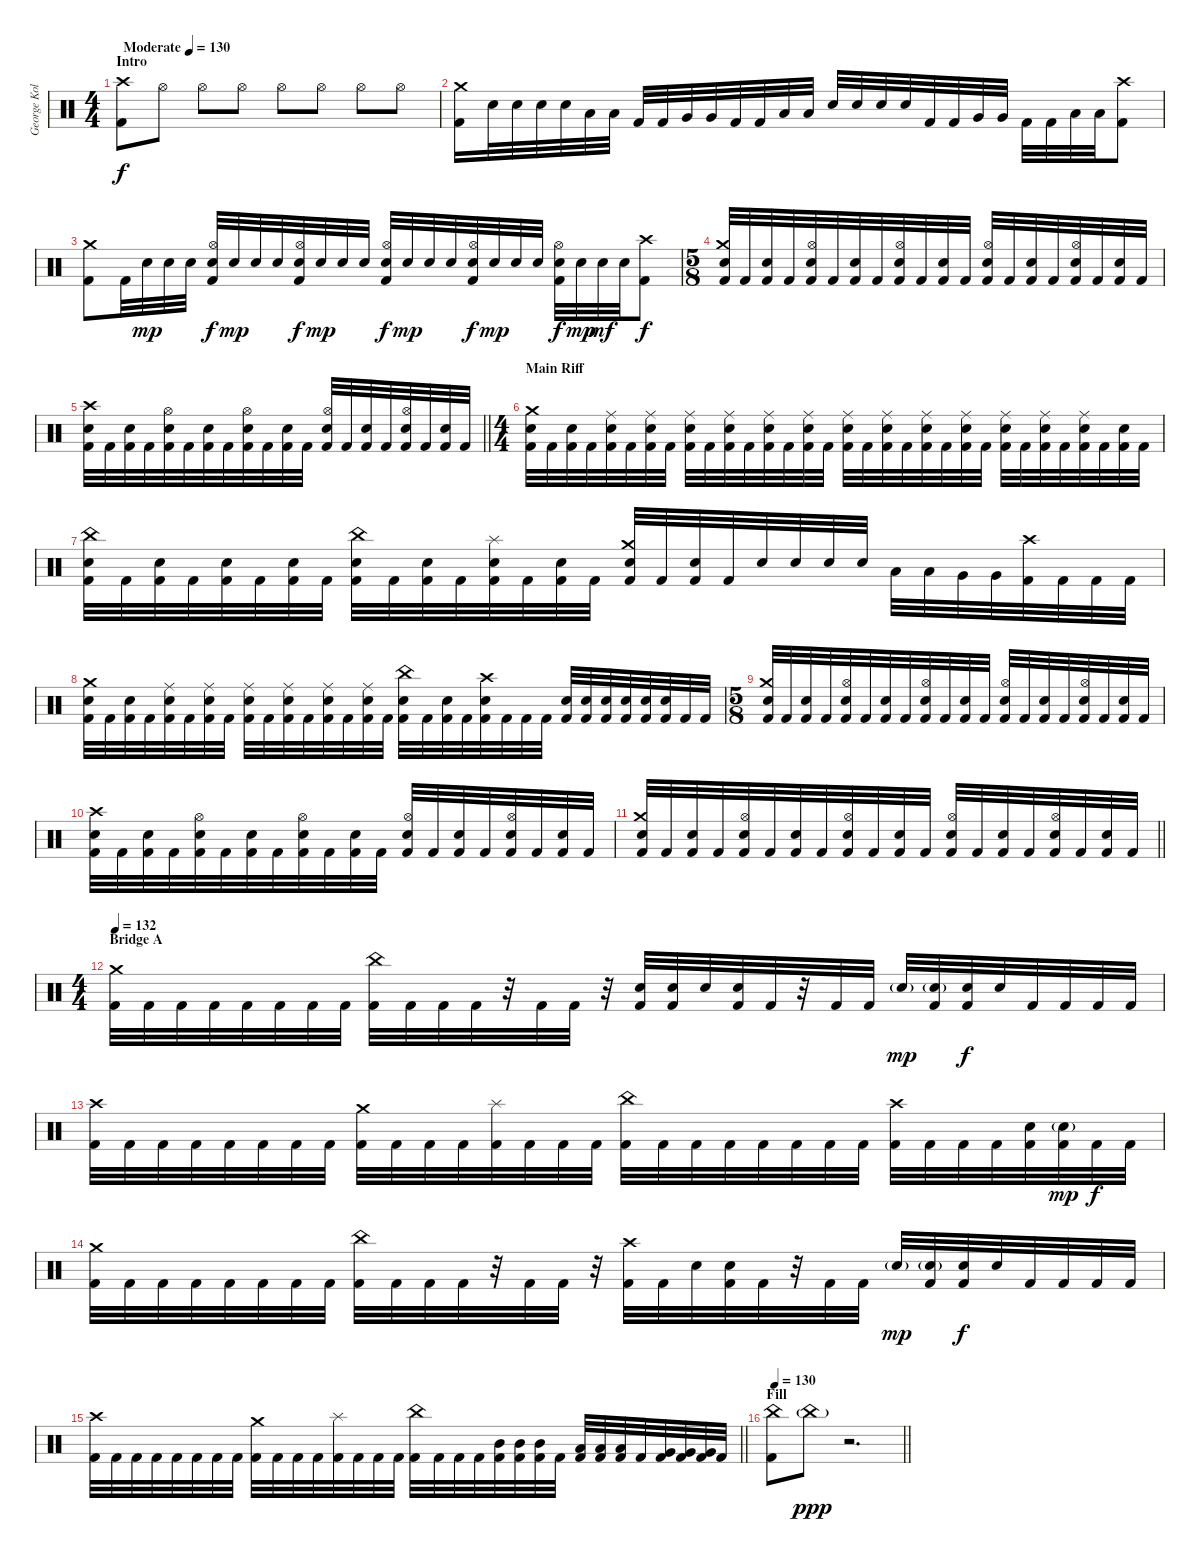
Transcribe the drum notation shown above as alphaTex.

\track ("George Kollias" "George Kol") {instrument percussion}
\staff {score}
\articulation defaults
\ts (4 4)
\section ("" "Intro")
\tempo (130 "Moderate")
\clef neutral
\ks c
("Crash high (hit)" "Kick (hit) 2").8{dy f} "Hi-Hat (open)".8 "Hi-Hat (open)".8 "Hi-Hat (open)".8 "Hi-Hat (open)".8 "Hi-Hat (open)".8 "Hi-Hat (open)".8 "Hi-Hat (open)".8 |
("Crash medium (hit)" "Kick (hit) 2").16 "Electric Snare (hit)".32 "Electric Snare (hit)".32 "Electric Snare (hit)".32 "Electric Snare (hit)".32 "Low Tom (hit)".32 "Low Tom (hit)".32 "Kick (hit) 2".32 "Kick (hit) 2".32 "Very Low Tom (hit)".32 "Very Low Tom (hit)".32 "Kick (hit) 2".32 "Kick (hit) 2".32 "Low Floor Tom (hit)".32 "Low Floor Tom (hit)".32 "Electric Snare (hit)".32 "Electric Snare (hit)".32 "Electric Snare (hit)".32 "Electric Snare (hit)".32 "Kick (hit) 2".32 "Kick (hit) 2".32 "Very Low Tom (hit)".32 "Very Low Tom (hit)".32 "Kick (hit) 2".32 "Kick (hit) 2".32 "Low Floor Tom (hit)".32 "Low Floor Tom (hit)".32 ("Crash high (hit)" "Kick (hit) 2").8 |
("Crash medium (hit)" "Kick (hit) 2").8 "Kick (hit) 2".32 "Electric Snare (hit)".32{dy mp} "Electric Snare (hit)".32 "Electric Snare (hit)".32 ("Hi-Hat (open)" "Electric Snare (hit)" "Kick (hit) 2").32{dy f} "Electric Snare (hit)".32{dy mp} "Electric Snare (hit)".32 "Electric Snare (hit)".32 ("Hi-Hat (open)" "Electric Snare (hit)" "Kick (hit) 2").32{dy f} "Electric Snare (hit)".32{dy mp} "Electric Snare (hit)".32 "Electric Snare (hit)".32 ("Hi-Hat (open)" "Electric Snare (hit)" "Kick (hit) 2").32{dy f} "Electric Snare (hit)".32{dy mp} "Electric Snare (hit)".32 "Electric Snare (hit)".32 ("Hi-Hat (open)" "Electric Snare (hit)" "Kick (hit) 2").32{dy f} "Electric Snare (hit)".32{dy mp} "Electric Snare (hit)".32 "Electric Snare (hit)".32 ("Hi-Hat (open)" "Electric Snare (hit)" "Kick (hit) 2").32{dy f} "Electric Snare (hit)".32{dy mp} "Electric Snare (hit)".32{dy mf} "Electric Snare (hit)".32 ("Crash high (hit)" "Kick (hit) 2").8{dy f} |
\ts (5 8)
("Crash medium (hit)" "Electric Snare (hit)" "Kick (hit) 2").32 "Kick (hit) 2".32 ("Electric Snare (hit)" "Kick (hit) 2").32 "Kick (hit) 2".32 ("Hi-Hat (open)" "Electric Snare (hit)" "Kick (hit) 2").32 "Kick (hit) 2".32 ("Electric Snare (hit)" "Kick (hit) 2").32 "Kick (hit) 2".32 ("Hi-Hat (open)" "Electric Snare (hit)" "Kick (hit) 2").32 "Kick (hit) 2".32 ("Electric Snare (hit)" "Kick (hit) 2").32 "Kick (hit) 2".32 ("Hi-Hat (open)" "Electric Snare (hit)" "Kick (hit) 2").32 "Kick (hit) 2".32 ("Electric Snare (hit)" "Kick (hit) 2").32 "Kick (hit) 2".32 ("Hi-Hat (open)" "Electric Snare (hit)" "Kick (hit) 2").32 "Kick (hit) 2".32 ("Electric Snare (hit)" "Kick (hit) 2").32 "Kick (hit) 2".32 |
\barLineRight lightlight
("Crash high (hit)" "Electric Snare (hit)" "Kick (hit) 2").32 "Kick (hit) 2".32 ("Electric Snare (hit)" "Kick (hit) 2").32 "Kick (hit) 2".32 ("Hi-Hat (open)" "Electric Snare (hit)" "Kick (hit) 2").32 "Kick (hit) 2".32 ("Electric Snare (hit)" "Kick (hit) 2").32 "Kick (hit) 2".32 ("Hi-Hat (open)" "Electric Snare (hit)" "Kick (hit) 2").32 "Kick (hit) 2".32 ("Electric Snare (hit)" "Kick (hit) 2").32 "Kick (hit) 2".32 ("Hi-Hat (open)" "Electric Snare (hit)" "Kick (hit) 2").32 "Kick (hit) 2".32 ("Electric Snare (hit)" "Kick (hit) 2").32 "Kick (hit) 2".32 ("Hi-Hat (open)" "Electric Snare (hit)" "Kick (hit) 2").32 "Kick (hit) 2".32 ("Electric Snare (hit)" "Kick (hit) 2").32 "Kick (hit) 2".32 |
\ts (4 4)
\section ("" "Main Riff ")
("Crash medium (hit)" "Electric Snare (hit)" "Kick (hit) 2").32 "Kick (hit) 2".32 ("Electric Snare (hit)" "Kick (hit) 2").32 "Kick (hit) 2".32 ("Ride (middle)" "Electric Snare (hit)" "Kick (hit) 2").32 "Kick (hit) 2".32 ("Ride (middle)" "Electric Snare (hit)" "Kick (hit) 2").32 "Kick (hit) 2".32 ("Ride (middle)" "Electric Snare (hit)" "Kick (hit) 2").32 "Kick (hit) 2".32 ("Ride (middle)" "Electric Snare (hit)" "Kick (hit) 2").32 "Kick (hit) 2".32 ("Ride (middle)" "Electric Snare (hit)" "Kick (hit) 2").32 "Kick (hit) 2".32 ("Ride (middle)" "Electric Snare (hit)" "Kick (hit) 2").32 "Kick (hit) 2".32 ("Ride (middle)" "Electric Snare (hit)" "Kick (hit) 2").32 "Kick (hit) 2".32 ("Ride (middle)" "Electric Snare (hit)" "Kick (hit) 2").32 "Kick (hit) 2".32 ("Ride (middle)" "Electric Snare (hit)" "Kick (hit) 2").32 "Kick (hit) 2".32 ("Ride (middle)" "Electric Snare (hit)" "Kick (hit) 2").32 "Kick (hit) 2".32 ("Ride (middle)" "Electric Snare (hit)" "Kick (hit) 2").32 "Kick (hit) 2".32 ("Ride (middle)" "Electric Snare (hit)" "Kick (hit) 2").32 "Kick (hit) 2".32 ("Ride (middle)" "Electric Snare (hit)" "Kick (hit) 2").32 "Kick (hit) 2".32 ("Electric Snare (hit)" "Kick (hit) 2").32 "Kick (hit) 2".32 |
("China (hit)" "Electric Snare (hit)" "Kick (hit) 2").32 "Kick (hit) 2".32 ("Electric Snare (hit)" "Kick (hit) 2").32 "Kick (hit) 2".32 ("Electric Snare (hit)" "Kick (hit) 2").32 "Kick (hit) 2".32 ("Electric Snare (hit)" "Kick (hit) 2").32 "Kick (hit) 2".32 ("China (hit)" "Electric Snare (hit)" "Kick (hit) 2").32 "Kick (hit) 2".32 ("Electric Snare (hit)" "Kick (hit) 2").32 "Kick (hit) 2".32 ("Splash (hit)" "Electric Snare (hit)" "Kick (hit) 2").32 "Kick (hit) 2".32 ("Electric Snare (hit)" "Kick (hit) 2").32 "Kick (hit) 2".32 ("Crash medium (hit)" "Electric Snare (hit)" "Kick (hit) 2").32 "Kick (hit) 2".32 ("Electric Snare (hit)" "Kick (hit) 2").32 "Kick (hit) 2".32 "Electric Snare (hit)".32 "Electric Snare (hit)".32 "Electric Snare (hit)".32 "Electric Snare (hit)".32 "Low Tom (hit)".32 "Low Tom (hit)".32 "Very Low Tom (hit)".32 "Very Low Tom (hit)".32 ("Crash high (hit)" "Kick (hit) 2").32 "Kick (hit) 2".32 "Kick (hit) 2".32 "Kick (hit) 2".32 |
("Crash medium (hit)" "Electric Snare (hit)" "Kick (hit) 2").32 "Kick (hit) 2".32 ("Electric Snare (hit)" "Kick (hit) 2").32 "Kick (hit) 2".32 ("Ride (middle)" "Electric Snare (hit)" "Kick (hit) 2").32 "Kick (hit) 2".32 ("Ride (middle)" "Electric Snare (hit)" "Kick (hit) 2").32 "Kick (hit) 2".32 ("Ride (middle)" "Electric Snare (hit)" "Kick (hit) 2").32 "Kick (hit) 2".32 ("Ride (middle)" "Electric Snare (hit)" "Kick (hit) 2").32 "Kick (hit) 2".32 ("Ride (middle)" "Electric Snare (hit)" "Kick (hit) 2").32 "Kick (hit) 2".32 ("Ride (middle)" "Electric Snare (hit)" "Kick (hit) 2").32 "Kick (hit) 2".32 ("China (hit)" "Electric Snare (hit)" "Kick (hit) 2").32 "Kick (hit) 2".32 ("Electric Snare (hit)" "Kick (hit) 2").32 "Kick (hit) 2".32 ("Crash high (hit)" "Electric Snare (hit)" "Kick (hit) 2").32 "Kick (hit) 2".32 "Kick (hit) 2".32 "Kick (hit) 2".32 ("Electric Snare (hit)" "Kick (hit) 2").32 ("Electric Snare (hit)" "Kick (hit) 2").32 ("Electric Snare (hit)" "Kick (hit) 2").32 ("Electric Snare (hit)" "Kick (hit) 2").32 ("Electric Snare (hit)" "Kick (hit) 2").32 ("Electric Snare (hit)" "Kick (hit) 2").32 "Kick (hit) 2".32 "Kick (hit) 2".32 |
\ts (5 8)
("Crash medium (hit)" "Electric Snare (hit)" "Kick (hit) 2").32 "Kick (hit) 2".32 ("Electric Snare (hit)" "Kick (hit) 2").32 "Kick (hit) 2".32 ("Hi-Hat (open)" "Electric Snare (hit)" "Kick (hit) 2").32 "Kick (hit) 2".32 ("Electric Snare (hit)" "Kick (hit) 2").32 "Kick (hit) 2".32 ("Hi-Hat (open)" "Electric Snare (hit)" "Kick (hit) 2").32 "Kick (hit) 2".32 ("Electric Snare (hit)" "Kick (hit) 2").32 "Kick (hit) 2".32 ("Hi-Hat (open)" "Electric Snare (hit)" "Kick (hit) 2").32 "Kick (hit) 2".32 ("Electric Snare (hit)" "Kick (hit) 2").32 "Kick (hit) 2".32 ("Hi-Hat (open)" "Electric Snare (hit)" "Kick (hit) 2").32 "Kick (hit) 2".32 ("Electric Snare (hit)" "Kick (hit) 2").32 "Kick (hit) 2".32 |
("Crash high (hit)" "Electric Snare (hit)" "Kick (hit) 2").32 "Kick (hit) 2".32 ("Electric Snare (hit)" "Kick (hit) 2").32 "Kick (hit) 2".32 ("Hi-Hat (open)" "Electric Snare (hit)" "Kick (hit) 2").32 "Kick (hit) 2".32 ("Electric Snare (hit)" "Kick (hit) 2").32 "Kick (hit) 2".32 ("Hi-Hat (open)" "Electric Snare (hit)" "Kick (hit) 2").32 "Kick (hit) 2".32 ("Electric Snare (hit)" "Kick (hit) 2").32 "Kick (hit) 2".32 ("Hi-Hat (open)" "Electric Snare (hit)" "Kick (hit) 2").32 "Kick (hit) 2".32 ("Electric Snare (hit)" "Kick (hit) 2").32 "Kick (hit) 2".32 ("Hi-Hat (open)" "Electric Snare (hit)" "Kick (hit) 2").32 "Kick (hit) 2".32 ("Electric Snare (hit)" "Kick (hit) 2").32 "Kick (hit) 2".32 |
\barLineRight lightlight
("Crash medium (hit)" "Electric Snare (hit)" "Kick (hit) 2").32 "Kick (hit) 2".32 ("Electric Snare (hit)" "Kick (hit) 2").32 "Kick (hit) 2".32 ("Hi-Hat (open)" "Electric Snare (hit)" "Kick (hit) 2").32 "Kick (hit) 2".32 ("Electric Snare (hit)" "Kick (hit) 2").32 "Kick (hit) 2".32 ("Hi-Hat (open)" "Electric Snare (hit)" "Kick (hit) 2").32 "Kick (hit) 2".32 ("Electric Snare (hit)" "Kick (hit) 2").32 "Kick (hit) 2".32 ("Hi-Hat (open)" "Electric Snare (hit)" "Kick (hit) 2").32 "Kick (hit) 2".32 ("Electric Snare (hit)" "Kick (hit) 2").32 "Kick (hit) 2".32 ("Hi-Hat (open)" "Electric Snare (hit)" "Kick (hit) 2").32 "Kick (hit) 2".32 ("Electric Snare (hit)" "Kick (hit) 2").32 "Kick (hit) 2".32 |
\ts (4 4)
\section ("" "Bridge A")
\tempo 132
("Crash medium (hit)" "Kick (hit) 2").32 "Kick (hit) 2".32 "Kick (hit) 2".32 "Kick (hit) 2".32 "Kick (hit) 2".32 "Kick (hit) 2".32 "Kick (hit) 2".32 "Kick (hit) 2".32 ("China (hit)" "Kick (hit) 2").32 "Kick (hit) 2".32 "Kick (hit) 2".32 "Kick (hit) 2".32 r.32 "Kick (hit) 2".32 "Kick (hit) 2".32 r.32 ("Electric Snare (hit)" "Kick (hit) 2").32 ("Electric Snare (hit)" "Kick (hit) 2").32 "Electric Snare (hit)".32 ("Electric Snare (hit)" "Kick (hit) 2").32 "Kick (hit) 2".32 r.32 "Kick (hit) 2".32 "Kick (hit) 2".32 "Electric Snare (hit)"{g}.32{dy mp} ("Electric Snare (hit)"{g} "Kick (hit) 2").32 ("Electric Snare (hit)" "Kick (hit) 2").32{dy f} "Electric Snare (hit)".32 "Kick (hit) 2".32 "Kick (hit) 2".32 "Kick (hit) 2".32 "Kick (hit) 2".32 |
("Crash high (hit)" "Kick (hit) 2").32 "Kick (hit) 2".32 "Kick (hit) 2".32 "Kick (hit) 2".32 "Kick (hit) 2".32 "Kick (hit) 2".32 "Kick (hit) 2".32 "Kick (hit) 2".32 ("Crash medium (hit)" "Kick (hit) 2").32 "Kick (hit) 2".32 "Kick (hit) 2".32 "Kick (hit) 2".32 ("Splash (hit)" "Kick (hit) 2").32 "Kick (hit) 2".32 "Kick (hit) 2".32 "Kick (hit) 2".32 ("China (hit)" "Kick (hit) 2").32 "Kick (hit) 2".32 "Kick (hit) 2".32 "Kick (hit) 2".32 "Kick (hit) 2".32 "Kick (hit) 2".32 "Kick (hit) 2".32 "Kick (hit) 2".32 ("Crash high (hit)" "Kick (hit) 2").32 "Kick (hit) 2".32 "Kick (hit) 2".32 "Kick (hit) 2".32 ("Electric Snare (hit)" "Kick (hit) 2").32 ("Electric Snare (hit)"{g} "Kick (hit) 2").32{dy mp} "Kick (hit) 2".32{dy f} "Kick (hit) 2".32 |
("Crash medium (hit)" "Kick (hit) 2").32 "Kick (hit) 2".32 "Kick (hit) 2".32 "Kick (hit) 2".32 "Kick (hit) 2".32 "Kick (hit) 2".32 "Kick (hit) 2".32 "Kick (hit) 2".32 ("China (hit)" "Kick (hit) 2").32 "Kick (hit) 2".32 "Kick (hit) 2".32 "Kick (hit) 2".32 r.32 "Kick (hit) 2".32 "Kick (hit) 2".32 r.32 ("Crash high (hit)" "Kick (hit) 2").32 "Kick (hit) 2".32 "Electric Snare (hit)".32 ("Electric Snare (hit)" "Kick (hit) 2").32 "Kick (hit) 2".32 r.32 "Kick (hit) 2".32 "Kick (hit) 2".32 "Electric Snare (hit)"{g}.32{dy mp} ("Electric Snare (hit)"{g} "Kick (hit) 2").32 ("Electric Snare (hit)" "Kick (hit) 2").32{dy f} "Electric Snare (hit)".32 "Kick (hit) 2".32 "Kick (hit) 2".32 "Kick (hit) 2".32 "Kick (hit) 2".32 |
\barLineRight lightlight
("Crash high (hit)" "Kick (hit) 2").32 "Kick (hit) 2".32 "Kick (hit) 2".32 "Kick (hit) 2".32 "Kick (hit) 2".32 "Kick (hit) 2".32 "Kick (hit) 2".32 "Kick (hit) 2".32 ("Crash medium (hit)" "Kick (hit) 2").32 "Kick (hit) 2".32 "Kick (hit) 2".32 "Kick (hit) 2".32 ("Splash (hit)" "Kick (hit) 2").32 "Kick (hit) 2".32 "Kick (hit) 2".32 "Kick (hit) 2".32 ("China (hit)" "Kick (hit) 2").32 "Kick (hit) 2".32 "Kick (hit) 2".32 "Kick (hit) 2".32 ("Mid Tom (hit)" "Kick (hit) 2").32 ("Mid Tom (hit)" "Kick (hit) 2").32 ("Mid Tom (hit)" "Kick (hit) 2").32 "Kick (hit) 2".32 ("Low Tom (hit)" "Kick (hit) 2").32 ("Low Tom (hit)" "Kick (hit) 2").32 ("Low Tom (hit)" "Kick (hit) 2").32 "Kick (hit) 2".32 ("Very Low Tom (hit)" "Kick (hit) 2").32 ("Very Low Tom (hit)" "Kick (hit) 2").32 ("Very Low Tom (hit)" "Kick (hit) 2").32 "Kick (hit) 2".32 |
\section ("" "Fill")
\tempo 130
\barLineRight lightlight
("China (hit)" "Kick (hit) 2").8 "China (hit)"{g}.8{dy ppp} r.2{d}
